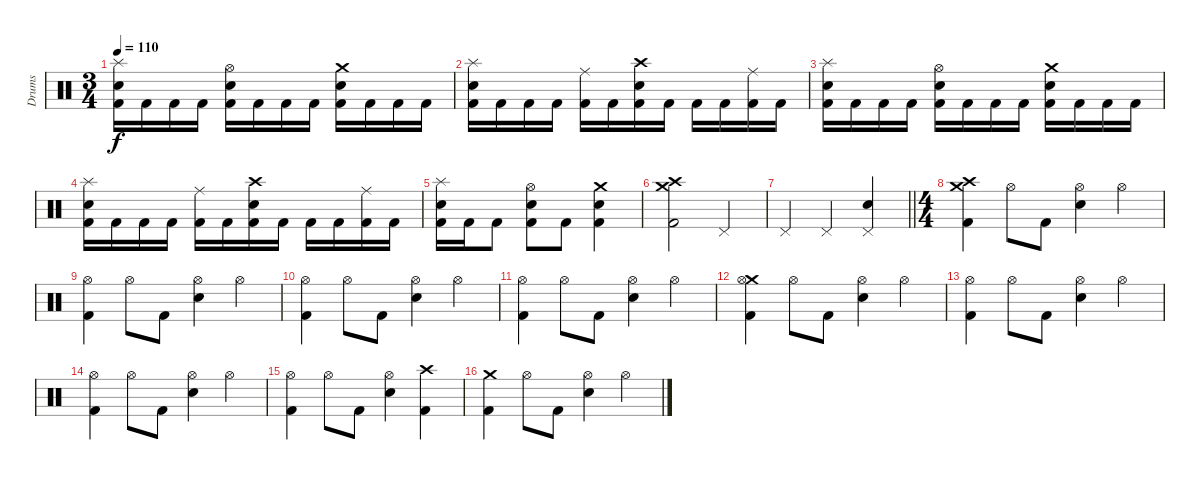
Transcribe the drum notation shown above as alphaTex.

\track ("Drums" "Drums") {instrument percussion}
\staff {score}
\articulation defaults
\ts (3 4)
\tempo 110
\clef neutral
\ks c
("Splash (hit)" "Snare (hit) 2" "Kick (hit) 2").16{dy f} "Kick (hit) 2".16 "Kick (hit) 2".16 "Kick (hit) 2".16 ("Hi-Hat (open)" "Snare (hit) 2" "Kick (hit) 2").16 "Kick (hit) 2".16 "Kick (hit) 2".16 "Kick (hit) 2".16 ("Crash medium (hit)" "Snare (hit) 2" "Kick (hit) 2").16 "Kick (hit) 2".16 "Kick (hit) 2".16 "Kick (hit) 2".16 |
("Splash (hit)" "Snare (hit) 2" "Kick (hit) 2").16 "Kick (hit) 2".16 "Kick (hit) 2".16 "Kick (hit) 2".16 ("Ride (middle)" "Kick (hit) 2").16 "Kick (hit) 2".16 ("Crash high (hit)" "Snare (hit) 2" "Kick (hit) 2").16 "Kick (hit) 2".16 "Kick (hit) 2".16 "Kick (hit) 2".16 ("Ride (middle)" "Kick (hit) 2").16 "Kick (hit) 2".16 |
("Splash (hit)" "Snare (hit) 2" "Kick (hit) 2").16 "Kick (hit) 2".16 "Kick (hit) 2".16 "Kick (hit) 2".16 ("Hi-Hat (open)" "Snare (hit) 2" "Kick (hit) 2").16 "Kick (hit) 2".16 "Kick (hit) 2".16 "Kick (hit) 2".16 ("Crash medium (hit)" "Snare (hit) 2" "Kick (hit) 2").16 "Kick (hit) 2".16 "Kick (hit) 2".16 "Kick (hit) 2".16 |
("Splash (hit)" "Snare (hit) 2" "Kick (hit) 2").16 "Kick (hit) 2".16 "Kick (hit) 2".16 "Kick (hit) 2".16 ("Ride (middle)" "Kick (hit) 2").16 "Kick (hit) 2".16 ("Crash high (hit)" "Snare (hit) 2" "Kick (hit) 2").16 "Kick (hit) 2".16 "Kick (hit) 2".16 "Kick (hit) 2".16 ("Ride (middle)" "Kick (hit) 2").16 "Kick (hit) 2".16 |
("Splash (hit)" "Snare (hit) 2" "Kick (hit) 2").16 "Kick (hit) 2".16 "Kick (hit) 2".8 ("Hi-Hat (open)" "Snare (hit) 2" "Kick (hit) 2").8 "Kick (hit) 2".8 ("Crash medium (hit)" "Snare (hit) 2" "Kick (hit) 2").4 |
("Crash medium (hit)" "Crash high (hit)" "Kick (hit) 2").2 "Pedal Hi-Hat (hit)".4 |
\barLineRight lightlight "Pedal Hi-Hat (hit)".4 "Pedal Hi-Hat (hit)".4
("Pedal Hi-Hat (hit)" "Snare (hit) 2").4 |
\ts (4 4)
("Crash high (hit)" "Crash medium (hit)" "Kick (hit) 2").4 "Hi-Hat (open)".8 "Kick (hit) 2".8 ("Hi-Hat (open)" "Snare (hit) 2").4 "Hi-Hat (open)".4 |
("Hi-Hat (open)" "Kick (hit) 2").4 "Hi-Hat (open)".8 "Kick (hit) 2".8 ("Hi-Hat (open)" "Snare (hit) 2").4 "Hi-Hat (open)".4 |
("Hi-Hat (open)" "Kick (hit) 2").4 "Hi-Hat (open)".8 "Kick (hit) 2".8 ("Hi-Hat (open)" "Snare (hit) 2").4 "Hi-Hat (open)".4 |
("Hi-Hat (open)" "Kick (hit) 2").4 "Hi-Hat (open)".8 "Kick (hit) 2".8 ("Hi-Hat (open)" "Snare (hit) 2").4 "Hi-Hat (open)".4 |
("Crash medium (hit)" "Hi-Hat (open)" "Kick (hit) 2").4 "Hi-Hat (open)".8 "Kick (hit) 2".8 ("Hi-Hat (open)" "Snare (hit) 2").4 "Hi-Hat (open)".4 |
("Hi-Hat (open)" "Kick (hit) 2").4 "Hi-Hat (open)".8 "Kick (hit) 2".8 ("Hi-Hat (open)" "Snare (hit) 2").4 "Hi-Hat (open)".4 |
("Hi-Hat (open)" "Kick (hit) 2").4 "Hi-Hat (open)".8 "Kick (hit) 2".8 ("Hi-Hat (open)" "Snare (hit) 2").4 "Hi-Hat (open)".4 |
("Hi-Hat (open)" "Kick (hit) 2").4 "Hi-Hat (open)".8 "Kick (hit) 2".8 ("Hi-Hat (open)" "Snare (hit) 2").4 ("Crash high (hit)" "Kick (hit) 2").4 |
("Crash medium (hit)" "Kick (hit) 2").4 "Hi-Hat (open)".8 "Kick (hit) 2".8 ("Hi-Hat (open)" "Snare (hit) 2").4 "Hi-Hat (open)".4
